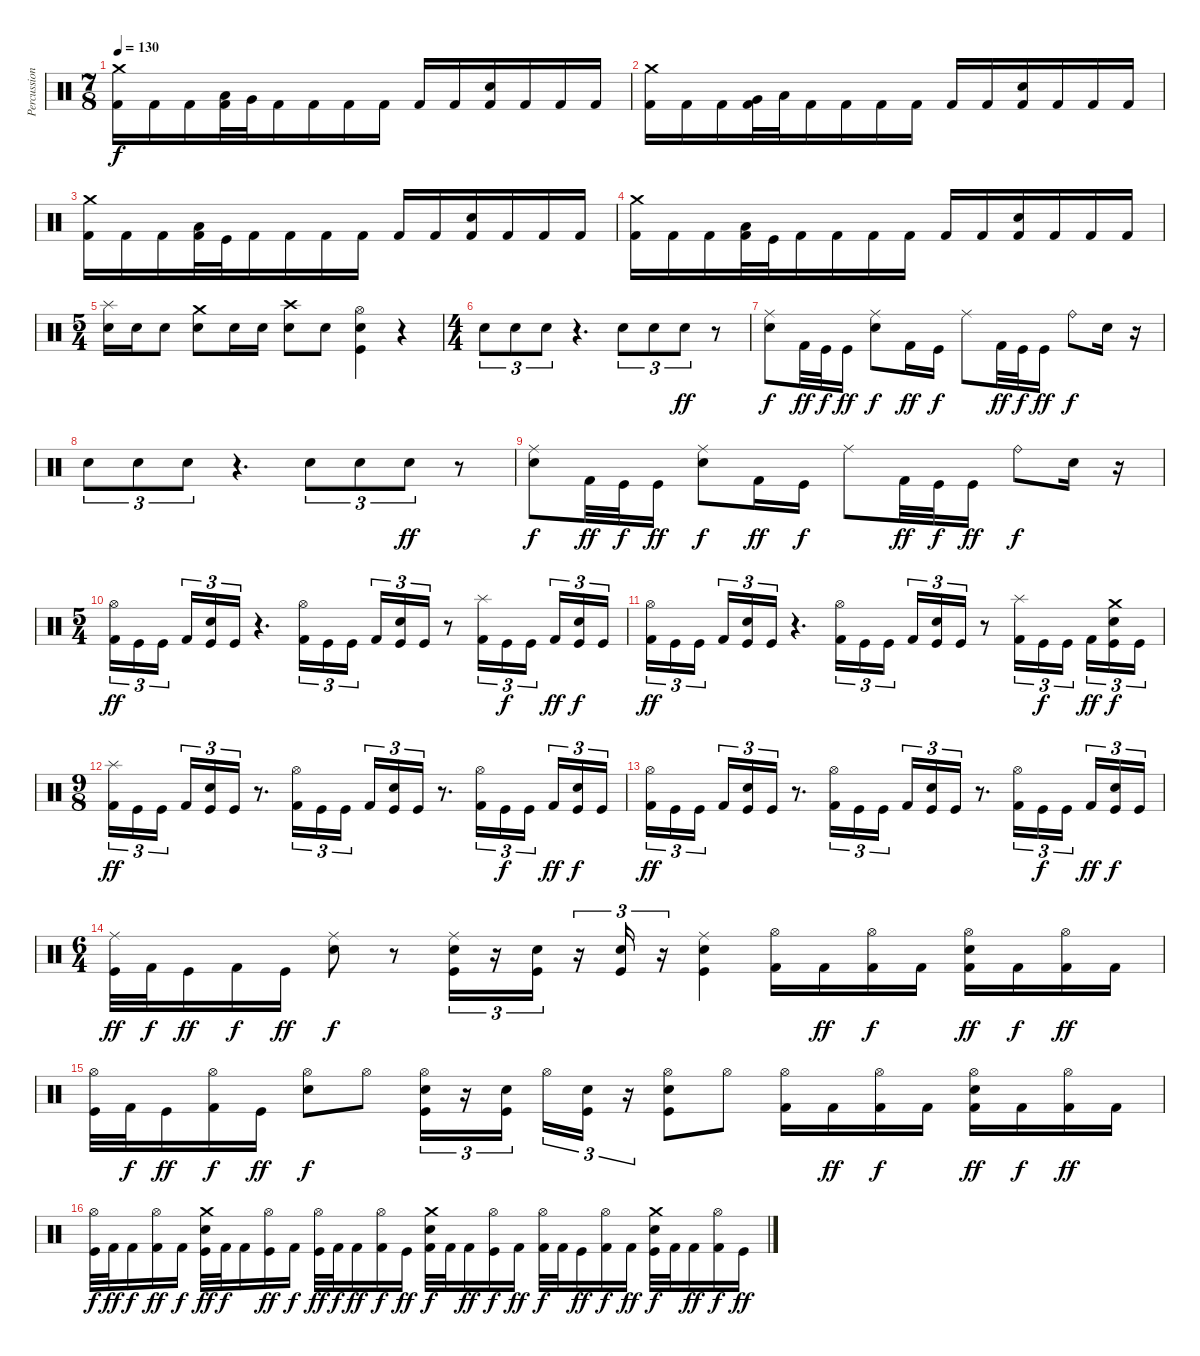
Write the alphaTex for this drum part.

\track ("Percussioni" "Percussion") {instrument percussion}
\staff {score}
\articulation defaults
\ts (7 8)
\tempo 130
\clef neutral
\ks c
("Crash medium (hit)" "Kick (hit) 2").16{dy f} "Kick (hit) 2".16 "Kick (hit) 2".16 ("Low Tom (hit)" "Kick (hit) 2").32 "Very Low Tom (hit)".32 "Kick (hit) 2".16 "Kick (hit) 2".16 "Kick (hit) 2".16 "Kick (hit) 2".16 "Kick (hit) 2".16 "Kick (hit) 2".16 ("Snare (hit) 2" "Kick (hit) 2").16 "Kick (hit) 2".16 "Kick (hit) 2".16 "Kick (hit) 2".16 |
("Crash medium (hit)" "Kick (hit) 2").16 "Kick (hit) 2".16 "Kick (hit) 2".16 ("Very Low Tom (hit)" "Kick (hit) 2").32 "Low Floor Tom (hit)".32 "Kick (hit) 2".16 "Kick (hit) 2".16 "Kick (hit) 2".16 "Kick (hit) 2".16 "Kick (hit) 2".16 "Kick (hit) 2".16 ("Snare (hit) 2" "Kick (hit) 2").16 "Kick (hit) 2".16 "Kick (hit) 2".16 "Kick (hit) 2".16 |
("Crash medium (hit)" "Kick (hit) 2").16 "Kick (hit) 2".16 "Kick (hit) 2".16 ("Low Floor Tom (hit)" "Kick (hit) 2").32 "Kick (hit)".32 "Kick (hit) 2".16 "Kick (hit) 2".16 "Kick (hit) 2".16 "Kick (hit) 2".16 "Kick (hit) 2".16 "Kick (hit) 2".16 ("Snare (hit) 2" "Kick (hit) 2").16 "Kick (hit) 2".16 "Kick (hit) 2".16 "Kick (hit) 2".16 |
("Crash medium (hit)" "Kick (hit) 2").16 "Kick (hit) 2".16 "Kick (hit) 2".16 ("Low Floor Tom (hit)" "Kick (hit) 2").32 "Kick (hit)".32 "Kick (hit) 2".16 "Kick (hit) 2".16 "Kick (hit) 2".16 "Kick (hit) 2".16 "Kick (hit) 2".16 "Kick (hit) 2".16 ("Snare (hit) 2" "Kick (hit) 2").16 "Kick (hit) 2".16 "Kick (hit) 2".16 "Kick (hit) 2".16 |
\ts (5 4)
("Splash (hit)" "Snare (hit) 2").16 "Snare (hit) 2".16 "Snare (hit) 2".8 ("Crash medium (hit)" "Snare (hit) 2").8 "Snare (hit) 2".16 "Snare (hit) 2".16 ("Crash high (hit)" "Snare (hit) 2").8 "Snare (hit) 2".8 ("Hi-Hat (open)" "Snare (hit) 2" "Kick (hit)").4 r.4 |
\ts (4 4)
"Snare (hit) 2".8{tu (3 2)} "Snare (hit) 2".8{tu (3 2)} "Snare (hit) 2".8{tu (3 2)} r.4{d} "Snare (hit) 2".8{tu (3 2)} "Snare (hit) 2".8{tu (3 2)} "Snare (hit) 2".8{tu (3 2) dy ff} r.8 |
("Ride (middle)" "Snare (hit) 2").8{dy f} "Kick (hit) 2".32{dy ff} "Kick (hit)".32{dy f} "Kick (hit)".16{dy ff} ("Ride (middle)" "Snare (hit) 2").8{dy f} "Kick (hit) 2".16{dy ff} "Kick (hit)".16{dy f} "Ride (middle)".8 "Kick (hit) 2".32{dy ff} "Kick (hit)".32{dy f} "Kick (hit)".16{dy ff} "Ride (bell)".8{dy f} "Snare (hit) 2".16 r.16 |
"Snare (hit) 2".8{tu (3 2)} "Snare (hit) 2".8{tu (3 2)} "Snare (hit) 2".8{tu (3 2)} r.4{d} "Snare (hit) 2".8{tu (3 2)} "Snare (hit) 2".8{tu (3 2)} "Snare (hit) 2".8{tu (3 2) dy ff} r.8 |
("Ride (middle)" "Snare (hit) 2").8{dy f} "Kick (hit) 2".32{dy ff} "Kick (hit)".32{dy f} "Kick (hit)".16{dy ff} ("Ride (middle)" "Snare (hit) 2").8{dy f} "Kick (hit) 2".16{dy ff} "Kick (hit)".16{dy f} "Ride (middle)".8 "Kick (hit) 2".32{dy ff} "Kick (hit)".32{dy f} "Kick (hit)".16{dy ff} "Ride (bell)".8{dy f} "Snare (hit) 2".16 r.16 |
\ts (5 4)
("Hi-Hat (open)" "Kick (hit) 2").16{tu (3 2) dy ff} "Kick (hit)".16{tu (3 2)} "Kick (hit)".16{tu (3 2)} "Kick (hit) 2".16{tu (3 2)} ("Snare (hit) 2" "Kick (hit)").16{tu (3 2)} "Kick (hit)".16{tu (3 2)} r.4{d} ("Hi-Hat (open)" "Kick (hit) 2").16{tu (3 2)} "Kick (hit)".16{tu (3 2)} "Kick (hit)".16{tu (3 2)} "Kick (hit) 2".16{tu (3 2)} ("Snare (hit) 2" "Kick (hit)").16{tu (3 2)} "Kick (hit)".16{tu (3 2)} r.8 ("Splash (hit)" "Kick (hit) 2").16{tu (3 2)} "Kick (hit)".16{tu (3 2) dy f} "Kick (hit)".16{tu (3 2)} "Kick (hit) 2".16{tu (3 2) dy ff} ("Snare (hit) 2" "Kick (hit)").16{tu (3 2) dy f} "Kick (hit)".16{tu (3 2)} |
("Hi-Hat (open)" "Kick (hit) 2").16{tu (3 2) dy ff} "Kick (hit)".16{tu (3 2)} "Kick (hit)".16{tu (3 2)} "Kick (hit) 2".16{tu (3 2)} ("Snare (hit) 2" "Kick (hit)").16{tu (3 2)} "Kick (hit)".16{tu (3 2)} r.4{d} ("Hi-Hat (open)" "Kick (hit) 2").16{tu (3 2)} "Kick (hit)".16{tu (3 2)} "Kick (hit)".16{tu (3 2)} "Kick (hit) 2".16{tu (3 2)} ("Snare (hit) 2" "Kick (hit)").16{tu (3 2)} "Kick (hit)".16{tu (3 2)} r.8 ("Splash (hit)" "Kick (hit) 2").16{tu (3 2)} "Kick (hit)".16{tu (3 2) dy f} "Kick (hit)".16{tu (3 2)} "Kick (hit) 2".16{tu (3 2) dy ff} ("Crash medium (hit)" "Snare (hit) 2" "Kick (hit)").16{tu (3 2) dy f} "Kick (hit)".16{tu (3 2)} |
\ts (9 8)
("Splash (hit)" "Kick (hit) 2").16{tu (3 2) dy ff} "Kick (hit)".16{tu (3 2)} "Kick (hit)".16{tu (3 2)} "Kick (hit) 2".16{tu (3 2)} ("Snare (hit) 2" "Kick (hit)").16{tu (3 2)} "Kick (hit)".16{tu (3 2)} r.8{d} ("Hi-Hat (open)" "Kick (hit) 2").16{tu (3 2)} "Kick (hit)".16{tu (3 2)} "Kick (hit)".16{tu (3 2)} "Kick (hit) 2".16{tu (3 2)} ("Snare (hit) 2" "Kick (hit)").16{tu (3 2)} "Kick (hit)".16{tu (3 2)} r.8{d} ("Hi-Hat (open)" "Kick (hit) 2").16{tu (3 2)} "Kick (hit)".16{tu (3 2) dy f} "Kick (hit)".16{tu (3 2)} "Kick (hit) 2".16{tu (3 2) dy ff} ("Snare (hit) 2" "Kick (hit)").16{tu (3 2) dy f} "Kick (hit)".16{tu (3 2)} |
("Hi-Hat (open)" "Kick (hit) 2").16{tu (3 2) dy ff} "Kick (hit)".16{tu (3 2)} "Kick (hit)".16{tu (3 2)} "Kick (hit) 2".16{tu (3 2)} ("Snare (hit) 2" "Kick (hit)").16{tu (3 2)} "Kick (hit)".16{tu (3 2)} r.8{d} ("Hi-Hat (open)" "Kick (hit) 2").16{tu (3 2)} "Kick (hit)".16{tu (3 2)} "Kick (hit)".16{tu (3 2)} "Kick (hit) 2".16{tu (3 2)} ("Snare (hit) 2" "Kick (hit)").16{tu (3 2)} "Kick (hit)".16{tu (3 2)} r.8{d} ("Hi-Hat (open)" "Kick (hit) 2").16{tu (3 2)} "Kick (hit)".16{tu (3 2) dy f} "Kick (hit)".16{tu (3 2)} "Kick (hit) 2".16{tu (3 2) dy ff} ("Snare (hit) 2" "Kick (hit)").16{tu (3 2) dy f} "Kick (hit)".16{tu (3 2)} |
\ts (6 4)
("Ride (middle)" "Kick (hit)").32{dy ff} "Kick (hit) 2".32{dy f} "Kick (hit)".16{dy ff} "Kick (hit) 2".16{dy f} "Kick (hit)".16{dy ff} ("Ride (middle)" "Snare (hit) 2").8{dy f} r.8 ("Ride (middle)" "Snare (hit) 2" "Kick (hit)").16{tu (3 2)} r.16{tu (3 2)} ("Snare (hit) 2" "Kick (hit)").16{tu (3 2)} r.16{tu (3 2)} ("Snare (hit) 2" "Kick (hit)").16{tu (3 2)} r.16{tu (3 2)} ("Ride (middle)" "Snare (hit) 2" "Kick (hit)").4 ("Hi-Hat (open)" "Kick (hit) 2").16 "Kick (hit) 2".16{dy ff} ("Hi-Hat (open)" "Kick (hit) 2").16{dy f} "Kick (hit) 2".16 ("Hi-Hat (open)" "Snare (hit) 2" "Kick (hit) 2").16{dy ff} "Kick (hit) 2".16{dy f} ("Hi-Hat (open)" "Kick (hit) 2").16{dy ff} "Kick (hit) 2".16 |
("Hi-Hat (open)" "Kick (hit)").32 "Kick (hit) 2".32{dy f} "Kick (hit)".16{dy ff} ("Hi-Hat (open)" "Kick (hit) 2").16{dy f} "Kick (hit)".16{dy ff} ("Hi-Hat (open)" "Snare (hit) 2").8{dy f} "Hi-Hat (open)".8 ("Hi-Hat (open)" "Snare (hit) 2" "Kick (hit)").16{tu (3 2)} r.16{tu (3 2)} ("Snare (hit) 2" "Kick (hit)").16{tu (3 2)} "Hi-Hat (open)".16{tu (3 2)} ("Snare (hit) 2" "Kick (hit)").16{tu (3 2)} r.16{tu (3 2)} ("Hi-Hat (open)" "Snare (hit) 2" "Kick (hit)").8 "Hi-Hat (open)".8 ("Hi-Hat (open)" "Kick (hit) 2").16 "Kick (hit) 2".16{dy ff} ("Hi-Hat (open)" "Kick (hit) 2").16{dy f} "Kick (hit) 2".16 ("Hi-Hat (open)" "Snare (hit) 2" "Kick (hit) 2").16{dy ff} "Kick (hit) 2".16{dy f} ("Hi-Hat (open)" "Kick (hit) 2").16{dy ff} "Kick (hit) 2".16 |
("Hi-Hat (open)" "Kick (hit)").32{dy f} "Kick (hit) 2".32{dy ff} "Kick (hit) 2".16{dy f} ("Hi-Hat (open)" "Kick (hit) 2").16{dy ff} "Kick (hit) 2".16{dy f} ("Crash medium (hit)" "Snare (hit) 2" "Kick (hit)").32{dy ff} "Kick (hit) 2".32{dy f} "Kick (hit) 2".16 ("Hi-Hat (open)" "Kick (hit)").16{dy ff} "Kick (hit) 2".16{dy f} ("Hi-Hat (open)" "Kick (hit)").32{dy ff} "Kick (hit) 2".32{dy f} "Kick (hit) 2".16{dy ff} ("Hi-Hat (open)" "Kick (hit) 2").16{dy f} "Kick (hit)".16{dy ff} ("Crash medium (hit)" "Snare (hit) 2" "Kick (hit) 2").32{dy f} "Kick (hit) 2".32 "Kick (hit) 2".16{dy ff} ("Hi-Hat (open)" "Kick (hit)").16{dy f} "Kick (hit) 2".16{dy ff} ("Hi-Hat (open)" "Kick (hit) 2").32{dy f} "Kick (hit) 2".32 "Kick (hit)".16{dy ff} ("Hi-Hat (open)" "Kick (hit) 2").16{dy f} "Kick (hit) 2".16{dy ff} ("Crash medium (hit)" "Snare (hit) 2" "Kick (hit)").32{dy f} "Kick (hit) 2".32 "Kick (hit) 2".16{dy ff} ("Hi-Hat (open)" "Kick (hit) 2").16{dy f} "Kick (hit)".16{dy ff}
